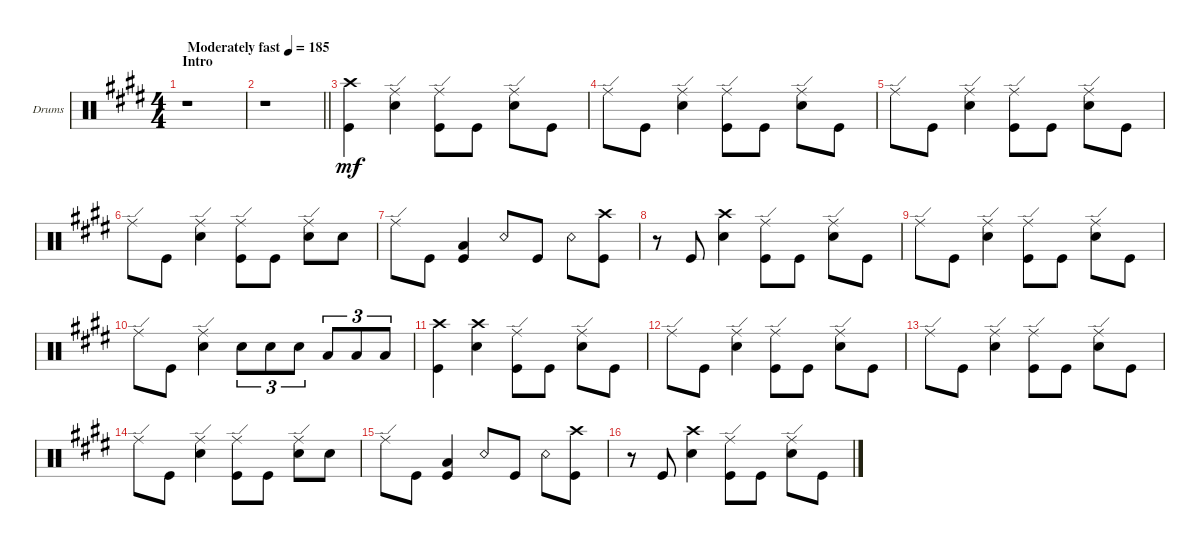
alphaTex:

\defaultSystemsLayout 4
\bracketExtendMode groupsimilarinstruments
\firstSystemTrackNameOrientation horizontal
\otherSystemsTrackNameOrientation horizontal
\track ("Drums" "Drums") {instrument percussion}
\staff {score}
\articulation defaults
\ts (4 4)
\section ("" "Intro")
\tempo (185 "Moderately fast")
\clef neutral
\ks e
r.1{dy mf} |
\scale
0.538462
\barLineRight lightlight
r.1 |
\scale
0.230769 ("Kick (hit)" "Crash high (hit)").4 ("Snare (hit) 2" "Ride (edge)").4 ("Kick (hit)" "Ride (edge)").8 "Kick (hit)".8 ("Snare (hit) 2" "Ride (edge)").8 "Kick (hit)".8 |
\scale
0.230769 "Ride (edge)".8 "Kick (hit)".8 ("Snare (hit) 2" "Ride (edge)").4 ("Kick (hit)" "Ride (edge)").8 "Kick (hit)".8 ("Snare (hit) 2" "Ride (edge)").8 "Kick (hit)".8 |
\scale
0.333333 "Ride (edge)".8 "Kick (hit)".8 ("Snare (hit) 2" "Ride (edge)").4 ("Kick (hit)" "Ride (edge)").8 "Kick (hit)".8 ("Snare (hit) 2" "Ride (edge)").8 "Kick (hit)".8 |
\scale
0.333333 "Ride (edge)".8 "Kick (hit)".8 ("Snare (hit) 2" "Ride (edge)").4 ("Kick (hit)" "Ride (edge)").8 "Kick (hit)".8 ("Snare (hit) 2" "Ride (edge)").8 "Snare (hit) 2".8 |
\scale
0.333333 "Ride (edge)".8 "Kick (hit)".8 ("Kick (hit)" "Low Tom (hit)").4 "Snare (rim shot)".8 "Kick (hit)".8 "Snare (rim shot)".8 ("Kick (hit)" "Crash high (hit)").8 |
\scale
0.333333 r.8 "Kick (hit)".8 ("Snare (hit) 2" "Crash high (hit)").4 ("Kick (hit)" "Ride (edge)").8 "Kick (hit)".8 ("Snare (hit) 2" "Ride (edge)").8 "Kick (hit)".8 |
\scale
0.333333 "Ride (edge)".8 "Kick (hit)".8 ("Snare (hit) 2" "Ride (edge)").4 ("Kick (hit)" "Ride (edge)").8 "Kick (hit)".8 ("Snare (hit) 2" "Ride (edge)").8 "Kick (hit)".8 |
\scale
0.333333 "Ride (edge)".8 "Kick (hit)".8 ("Snare (hit) 2" "Ride (edge)").4 "Snare (hit) 2".8{tu (3 2)} "Snare (hit) 2".8{tu (3 2)} "Snare (hit) 2".8{tu (3 2)} "Low Tom (hit)".8{tu (3 2)} "Low Tom (hit)".8{tu (3 2)} "Low Tom (hit)".8{tu (3 2)} |
\scale
0.333333 ("Kick (hit)" "Crash high (hit)").4 ("Snare (hit) 2" "Crash high (hit)").4 ("Kick (hit)" "Ride (edge)").8 "Kick (hit)".8 ("Snare (hit) 2" "Ride (edge)").8 "Kick (hit)".8 |
\scale
0.333333 "Ride (edge)".8 "Kick (hit)".8 ("Snare (hit) 2" "Ride (edge)").4 ("Kick (hit)" "Ride (edge)").8 "Kick (hit)".8 ("Snare (hit) 2" "Ride (edge)").8 "Kick (hit)".8 |
\scale
0.333333 "Ride (edge)".8 "Kick (hit)".8 ("Snare (hit) 2" "Ride (edge)").4 ("Kick (hit)" "Ride (edge)").8 "Kick (hit)".8 ("Snare (hit) 2" "Ride (edge)").8 "Kick (hit)".8 |
\scale
0.333333 "Ride (edge)".8 "Kick (hit)".8 ("Snare (hit) 2" "Ride (edge)").4 ("Kick (hit)" "Ride (edge)").8 "Kick (hit)".8 ("Snare (hit) 2" "Ride (edge)").8 "Snare (hit) 2".8 |
\scale
0.333333 "Ride (edge)".8 "Kick (hit)".8 ("Kick (hit)" "Low Tom (hit)").4 "Snare (rim shot)".8 "Kick (hit)".8 "Snare (rim shot)".8 ("Kick (hit)" "Crash high (hit)").8 |
\scale
0.333333 r.8 "Kick (hit)".8 ("Snare (hit) 2" "Crash high (hit)").4 ("Kick (hit)" "Ride (edge)").8 "Kick (hit)".8 ("Snare (hit) 2" "Ride (edge)").8 "Kick (hit)".8
